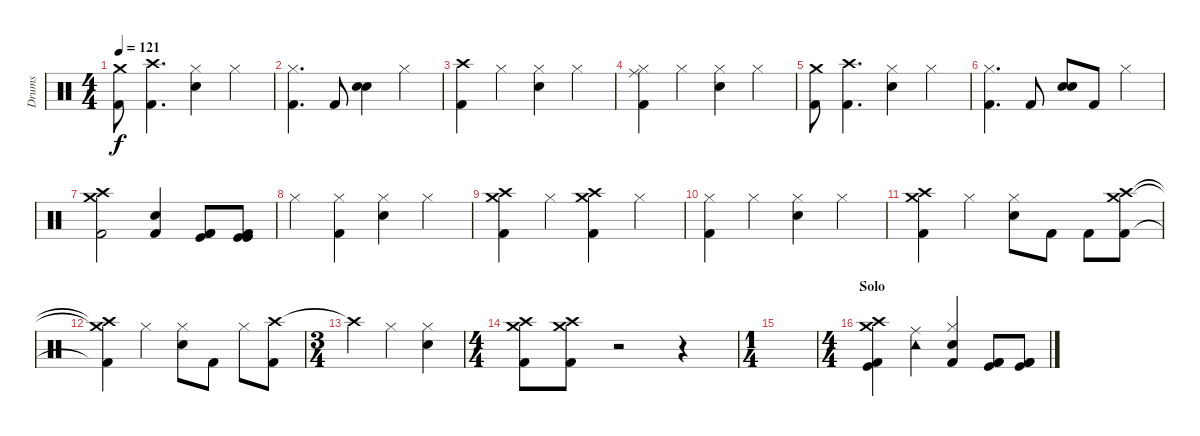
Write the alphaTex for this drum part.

\track ("Drums" "Drums") {instrument percussion}
\staff {score}
\articulation defaults
\ts (4 4)
\tempo 121
\clef neutral
\ks c
("Crash medium (hit)" "Kick (hit) 2").8{dy f} ("Crash high (hit)" "Kick (hit) 2").4{d} ("Hi-Hat (closed)" "Electric Snare (hit)").4 "Hi-Hat (closed)".4 |
("Hi-Hat (closed)" "Kick (hit) 2").4{d} "Kick (hit) 2".8 ("Electric Snare (hit)" "Snare (hit) 2").4 "Hi-Hat (closed)".4 |
("Crash high (hit)" "Kick (hit) 2").4 "Hi-Hat (closed)".4 ("Hi-Hat (closed)" "Electric Snare (hit)").4 "Hi-Hat (closed)".4 |
("Hi-Hat (closed)" "Ride (middle)" "Kick (hit) 2").4 "Hi-Hat (closed)".4 ("Hi-Hat (closed)" "Electric Snare (hit)").4 "Hi-Hat (closed)".4 |
("Crash medium (hit)" "Kick (hit) 2").8 ("Crash high (hit)" "Kick (hit) 2").4{d} ("Hi-Hat (closed)" "Electric Snare (hit)").4 "Hi-Hat (closed)".4 |
("Hi-Hat (closed)" "Kick (hit) 2").4{d} "Kick (hit) 2".8 ("Electric Snare (hit)" "Snare (hit) 2").8 "Kick (hit) 2".8 "Hi-Hat (closed)".4 |
("Crash high (hit)" "Crash medium (hit)" "Kick (hit) 2").2 ("Snare (hit) 2" "Kick (hit) 2").4 ("Kick (hit)" "Kick (hit) 2" "Kick (hit) 2").8 ("Kick (hit)" "Kick (hit) 2" "Kick (hit)").8 |
"Hi-Hat (closed)".4 ("Hi-Hat (closed)" "Kick (hit) 2").4 ("Hi-Hat (closed)" "Snare (hit) 2").4 "Hi-Hat (closed)".4 |
("Crash high (hit)" "Crash medium (hit)" "Kick (hit) 2").4 "Hi-Hat (closed)".4 ("Crash high (hit)" "Crash medium (hit)" "Kick (hit) 2").4 "Hi-Hat (closed)".4 |
("Hi-Hat (closed)" "Kick (hit) 2").4 "Hi-Hat (closed)".4 ("Hi-Hat (closed)" "Snare (hit) 2").4 "Hi-Hat (closed)".4 |
("Crash high (hit)" "Crash medium (hit)" "Kick (hit) 2").4 "Hi-Hat (closed)".4 ("Hi-Hat (closed)" "Snare (hit) 2").8 "Kick (hit) 2".8 "Kick (hit) 2".8 ("Crash high (hit)" "Crash medium (hit)" "Kick (hit) 2").8 |
("Crash high (hit)"{t} "Crash medium (hit)"{t} "Kick (hit) 2"{t}).4 "Hi-Hat (closed)".4 ("Hi-Hat (closed)" "Snare (hit) 2").8 "Kick (hit) 2".8 "Hi-Hat (closed)".8 ("Crash high (hit)" "Kick (hit) 2").8 |
\ts (3 4)
"Crash high (hit)"{t}.4 "Hi-Hat (closed)".4 ("Hi-Hat (closed)" "Snare (hit) 2").4 |
\ts (4 4)
("Crash medium (hit)" "Kick (hit) 2" "Crash high (hit)").8 ("Crash medium (hit)" "Kick (hit) 2" "Crash high (hit)").8 r.2 r.4 |
\ts (1 4)
|
\ts (4 4)
\section ("" "Solo")
("Crash high (hit)" "Kick (hit)" "Crash medium (hit)" "Kick (hit) 2").4 ("Tambourine (hit)" "Ride (middle)").4 ("Hi-Hat (closed)" "Snare (hit) 2" "Kick (hit) 2").4 ("Kick (hit) 2" "Kick (hit)" "Kick (hit) 2").8 ("Kick (hit) 2" "Kick (hit)" "Kick (hit) 2").8
